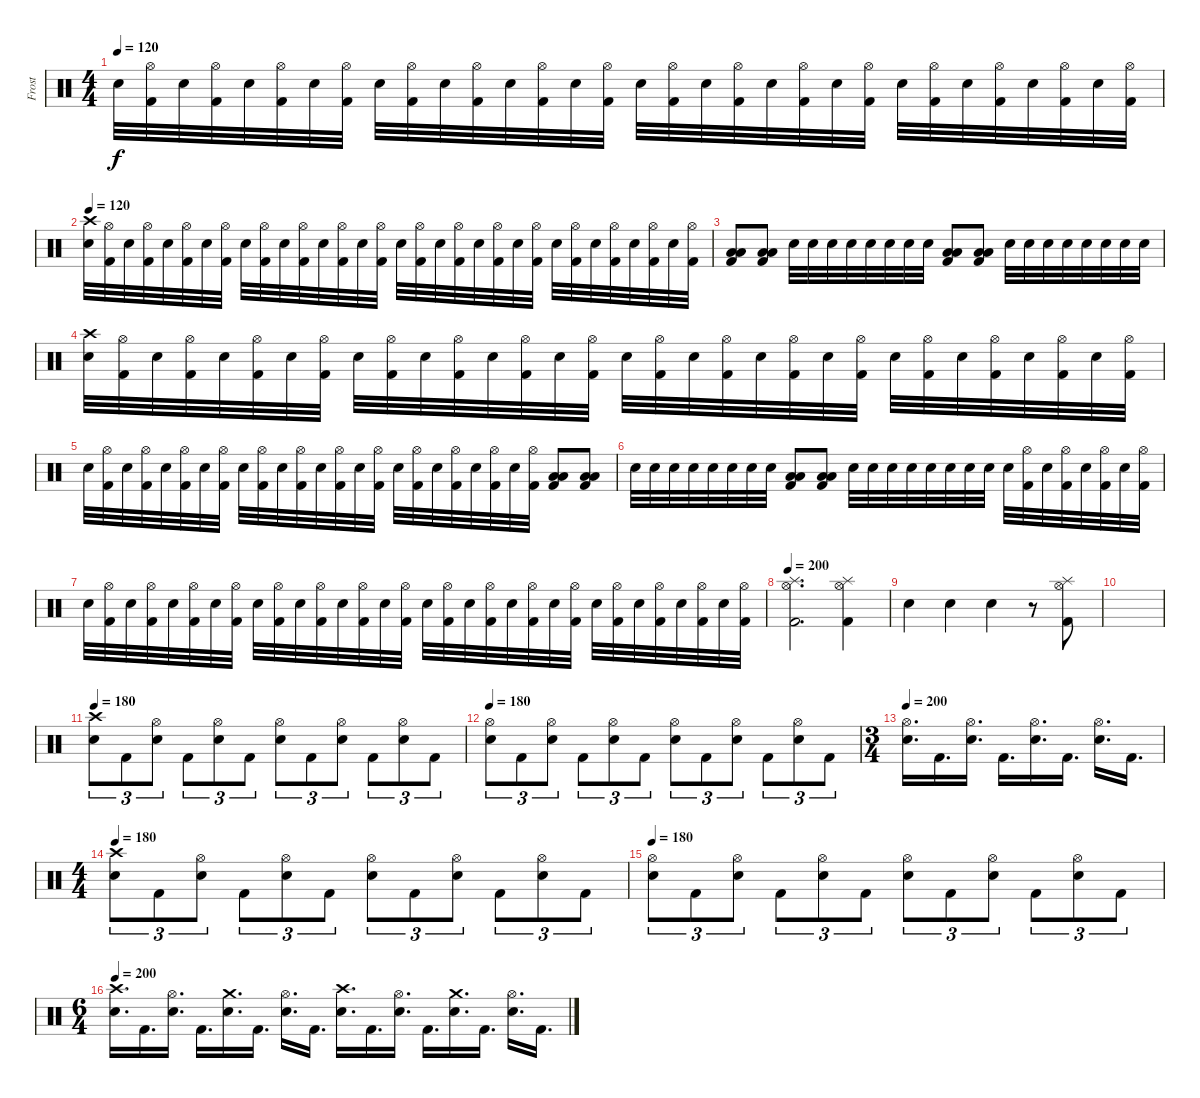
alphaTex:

\track ("Frost" "Frost") {instrument percussion}
\staff {score}
\articulation defaults
\ts (4 4)
\tempo 120
\clef neutral
\ks c "Snare (hit) 2".32{dy f}
("Hi-Hat (open)" "Kick (hit) 2").32 "Snare (hit) 2".32 ("Hi-Hat (open)" "Kick (hit) 2").32 "Snare (hit) 2".32 ("Hi-Hat (open)" "Kick (hit) 2").32 "Snare (hit) 2".32 ("Hi-Hat (open)" "Kick (hit) 2").32 "Snare (hit) 2".32 ("Hi-Hat (open)" "Kick (hit) 2").32 "Snare (hit) 2".32 ("Hi-Hat (open)" "Kick (hit) 2").32 "Snare (hit) 2".32 ("Hi-Hat (open)" "Kick (hit) 2").32 "Snare (hit) 2".32 ("Hi-Hat (open)" "Kick (hit) 2").32 "Snare (hit) 2".32 ("Hi-Hat (open)" "Kick (hit) 2").32 "Snare (hit) 2".32 ("Hi-Hat (open)" "Kick (hit) 2").32 "Snare (hit) 2".32 ("Hi-Hat (open)" "Kick (hit) 2").32 "Snare (hit) 2".32 ("Hi-Hat (open)" "Kick (hit) 2").32 "Snare (hit) 2".32 ("Hi-Hat (open)" "Kick (hit) 2").32 "Snare (hit) 2".32 ("Hi-Hat (open)" "Kick (hit) 2").32 "Snare (hit) 2".32 ("Hi-Hat (open)" "Kick (hit) 2").32 "Snare (hit) 2".32 ("Hi-Hat (open)" "Kick (hit) 2").32 |
\tempo 120
("Crash high (hit)" "Snare (hit) 2").32 ("Hi-Hat (open)" "Kick (hit) 2").32 "Snare (hit) 2".32 ("Hi-Hat (open)" "Kick (hit) 2").32 "Snare (hit) 2".32 ("Hi-Hat (open)" "Kick (hit) 2").32 "Snare (hit) 2".32 ("Hi-Hat (open)" "Kick (hit) 2").32 "Snare (hit) 2".32 ("Hi-Hat (open)" "Kick (hit) 2").32 "Snare (hit) 2".32 ("Hi-Hat (open)" "Kick (hit) 2").32 "Snare (hit) 2".32 ("Hi-Hat (open)" "Kick (hit) 2").32 "Snare (hit) 2".32 ("Hi-Hat (open)" "Kick (hit) 2").32 "Snare (hit) 2".32 ("Hi-Hat (open)" "Kick (hit) 2").32 "Snare (hit) 2".32 ("Hi-Hat (open)" "Kick (hit) 2").32 "Snare (hit) 2".32 ("Hi-Hat (open)" "Kick (hit) 2").32 "Snare (hit) 2".32 ("Hi-Hat (open)" "Kick (hit) 2").32 "Snare (hit) 2".32 ("Hi-Hat (open)" "Kick (hit) 2").32 "Snare (hit) 2".32 ("Hi-Hat (open)" "Kick (hit) 2").32 "Snare (hit) 2".32 ("Hi-Hat (open)" "Kick (hit) 2").32 "Snare (hit) 2".32 ("Hi-Hat (open)" "Kick (hit) 2").32 |
("Low Floor Tom (hit)" "Low Tom (hit)" "Kick (hit) 2").8 ("Low Floor Tom (hit)" "Low Tom (hit)" "Kick (hit) 2").8 "Snare (hit) 2".32 "Snare (hit) 2".32 "Snare (hit) 2".32 "Snare (hit) 2".32 "Snare (hit) 2".32 "Snare (hit) 2".32 "Snare (hit) 2".32 "Snare (hit) 2".32 ("Low Floor Tom (hit)" "Low Tom (hit)" "Kick (hit) 2").8 ("Low Floor Tom (hit)" "Low Tom (hit)" "Kick (hit) 2").8 "Snare (hit) 2".32 "Snare (hit) 2".32 "Snare (hit) 2".32 "Snare (hit) 2".32 "Snare (hit) 2".32 "Snare (hit) 2".32 "Snare (hit) 2".32 "Snare (hit) 2".32 |
("Crash high (hit)" "Snare (hit) 2").32 ("Hi-Hat (open)" "Kick (hit) 2").32 "Snare (hit) 2".32 ("Hi-Hat (open)" "Kick (hit) 2").32 "Snare (hit) 2".32 ("Hi-Hat (open)" "Kick (hit) 2").32 "Snare (hit) 2".32 ("Hi-Hat (open)" "Kick (hit) 2").32 "Snare (hit) 2".32 ("Hi-Hat (open)" "Kick (hit) 2").32 "Snare (hit) 2".32 ("Hi-Hat (open)" "Kick (hit) 2").32 "Snare (hit) 2".32 ("Hi-Hat (open)" "Kick (hit) 2").32 "Snare (hit) 2".32 ("Hi-Hat (open)" "Kick (hit) 2").32 "Snare (hit) 2".32 ("Hi-Hat (open)" "Kick (hit) 2").32 "Snare (hit) 2".32 ("Hi-Hat (open)" "Kick (hit) 2").32 "Snare (hit) 2".32 ("Hi-Hat (open)" "Kick (hit) 2").32 "Snare (hit) 2".32 ("Hi-Hat (open)" "Kick (hit) 2").32 "Snare (hit) 2".32 ("Hi-Hat (open)" "Kick (hit) 2").32 "Snare (hit) 2".32 ("Hi-Hat (open)" "Kick (hit) 2").32 "Snare (hit) 2".32 ("Hi-Hat (open)" "Kick (hit) 2").32 "Snare (hit) 2".32 ("Hi-Hat (open)" "Kick (hit) 2").32 |
"Snare (hit) 2".32 ("Hi-Hat (open)" "Kick (hit) 2").32 "Snare (hit) 2".32 ("Hi-Hat (open)" "Kick (hit) 2").32 "Snare (hit) 2".32 ("Hi-Hat (open)" "Kick (hit) 2").32 "Snare (hit) 2".32 ("Hi-Hat (open)" "Kick (hit) 2").32 "Snare (hit) 2".32 ("Hi-Hat (open)" "Kick (hit) 2").32 "Snare (hit) 2".32 ("Hi-Hat (open)" "Kick (hit) 2").32 "Snare (hit) 2".32 ("Hi-Hat (open)" "Kick (hit) 2").32 "Snare (hit) 2".32 ("Hi-Hat (open)" "Kick (hit) 2").32 "Snare (hit) 2".32 ("Hi-Hat (open)" "Kick (hit) 2").32 "Snare (hit) 2".32 ("Hi-Hat (open)" "Kick (hit) 2").32 "Snare (hit) 2".32 ("Hi-Hat (open)" "Kick (hit) 2").32 "Snare (hit) 2".32 ("Hi-Hat (open)" "Kick (hit) 2").32 ("Low Floor Tom (hit)" "Low Tom (hit)" "Kick (hit) 2").8 ("Low Floor Tom (hit)" "Low Tom (hit)" "Kick (hit) 2").8 |
"Snare (hit) 2".32 "Snare (hit) 2".32 "Snare (hit) 2".32 "Snare (hit) 2".32 "Snare (hit) 2".32 "Snare (hit) 2".32 "Snare (hit) 2".32 "Snare (hit) 2".32 ("Low Floor Tom (hit)" "Low Tom (hit)" "Kick (hit) 2").8 ("Low Floor Tom (hit)" "Low Tom (hit)" "Kick (hit) 2").8 "Snare (hit) 2".32 "Snare (hit) 2".32 "Snare (hit) 2".32 "Snare (hit) 2".32 "Snare (hit) 2".32 "Snare (hit) 2".32 "Snare (hit) 2".32 "Snare (hit) 2".32 "Snare (hit) 2".32 ("Hi-Hat (open)" "Kick (hit) 2").32 "Snare (hit) 2".32 ("Hi-Hat (open)" "Kick (hit) 2").32 "Snare (hit) 2".32 ("Hi-Hat (open)" "Kick (hit) 2").32 "Snare (hit) 2".32 ("Hi-Hat (open)" "Kick (hit) 2").32 |
"Snare (hit) 2".32 ("Hi-Hat (open)" "Kick (hit) 2").32 "Snare (hit) 2".32 ("Hi-Hat (open)" "Kick (hit) 2").32 "Snare (hit) 2".32 ("Hi-Hat (open)" "Kick (hit) 2").32 "Snare (hit) 2".32 ("Hi-Hat (open)" "Kick (hit) 2").32 "Snare (hit) 2".32 ("Hi-Hat (open)" "Kick (hit) 2").32 "Snare (hit) 2".32 ("Hi-Hat (open)" "Kick (hit) 2").32 "Snare (hit) 2".32 ("Hi-Hat (open)" "Kick (hit) 2").32 "Snare (hit) 2".32 ("Hi-Hat (open)" "Kick (hit) 2").32 "Snare (hit) 2".32 ("Hi-Hat (open)" "Kick (hit) 2").32 "Snare (hit) 2".32 ("Hi-Hat (open)" "Kick (hit) 2").32 "Snare (hit) 2".32 ("Hi-Hat (open)" "Kick (hit) 2").32 "Snare (hit) 2".32 ("Hi-Hat (open)" "Kick (hit) 2").32 "Snare (hit) 2".32 ("Hi-Hat (open)" "Kick (hit) 2").32 "Snare (hit) 2".32 ("Hi-Hat (open)" "Kick (hit) 2").32 "Snare (hit) 2".32 ("Hi-Hat (open)" "Kick (hit) 2").32 "Snare (hit) 2".32 ("Hi-Hat (open)" "Kick (hit) 2").32 |
\tempo 200
("Splash (hit)" "Hi-Hat (open)" "Kick (hit) 2").2{d} ("Splash (hit)" "Hi-Hat (open)" "Kick (hit) 2").4 |
"Snare (hit)".4 "Snare (hit)".4 "Snare (hit)".4 r.8 ("Splash (hit)" "Hi-Hat (open)" "Kick (hit) 2").8 |
|
\tempo 180
("Crash high (hit)" "Snare (hit) 2").8{tu (3 2)} "Kick (hit) 2".8{tu (3 2)} ("Hi-Hat (open)" "Snare (hit) 2").8{tu (3 2)} "Kick (hit) 2".8{tu (3 2)} ("Hi-Hat (open)" "Snare (hit) 2").8{tu (3 2)} "Kick (hit) 2".8{tu (3 2)} ("Hi-Hat (open)" "Snare (hit) 2").8{tu (3 2)} "Kick (hit) 2".8{tu (3 2)} ("Hi-Hat (open)" "Snare (hit) 2").8{tu (3 2)} "Kick (hit) 2".8{tu (3 2)} ("Hi-Hat (open)" "Snare (hit) 2").8{tu (3 2)} "Kick (hit) 2".8{tu (3 2)} |
\tempo 180
("Hi-Hat (open)" "Snare (hit) 2").8{tu (3 2)} "Kick (hit) 2".8{tu (3 2)} ("Hi-Hat (open)" "Snare (hit) 2").8{tu (3 2)} "Kick (hit) 2".8{tu (3 2)} ("Hi-Hat (open)" "Snare (hit) 2").8{tu (3 2)} "Kick (hit) 2".8{tu (3 2)} ("Hi-Hat (open)" "Snare (hit) 2").8{tu (3 2)} "Kick (hit) 2".8{tu (3 2)} ("Hi-Hat (open)" "Snare (hit) 2").8{tu (3 2)} "Kick (hit) 2".8{tu (3 2)} ("Hi-Hat (open)" "Snare (hit) 2").8{tu (3 2)} "Kick (hit) 2".8{tu (3 2)} |
\ts (3 4)
\tempo 200
("Hi-Hat (open)" "Snare (hit) 2").16{d} "Kick (hit) 2".16{d} ("Hi-Hat (open)" "Snare (hit) 2").16{d} "Kick (hit) 2".16{d} ("Hi-Hat (open)" "Snare (hit) 2").16{d} "Kick (hit) 2".16{d} ("Hi-Hat (open)" "Snare (hit) 2").16{d} "Kick (hit) 2".16{d} |
\ts (4 4)
\tempo 180
("Crash high (hit)" "Snare (hit) 2").8{tu (3 2)} "Kick (hit) 2".8{tu (3 2)} ("Hi-Hat (open)" "Snare (hit) 2").8{tu (3 2)} "Kick (hit) 2".8{tu (3 2)} ("Hi-Hat (open)" "Snare (hit) 2").8{tu (3 2)} "Kick (hit) 2".8{tu (3 2)} ("Hi-Hat (open)" "Snare (hit) 2").8{tu (3 2)} "Kick (hit) 2".8{tu (3 2)} ("Hi-Hat (open)" "Snare (hit) 2").8{tu (3 2)} "Kick (hit) 2".8{tu (3 2)} ("Hi-Hat (open)" "Snare (hit) 2").8{tu (3 2)} "Kick (hit) 2".8{tu (3 2)} |
\tempo 180
("Hi-Hat (open)" "Snare (hit) 2").8{tu (3 2)} "Kick (hit) 2".8{tu (3 2)} ("Hi-Hat (open)" "Snare (hit) 2").8{tu (3 2)} "Kick (hit) 2".8{tu (3 2)} ("Hi-Hat (open)" "Snare (hit) 2").8{tu (3 2)} "Kick (hit) 2".8{tu (3 2)} ("Hi-Hat (open)" "Snare (hit) 2").8{tu (3 2)} "Kick (hit) 2".8{tu (3 2)} ("Hi-Hat (open)" "Snare (hit) 2").8{tu (3 2)} "Kick (hit) 2".8{tu (3 2)} ("Hi-Hat (open)" "Snare (hit) 2").8{tu (3 2)} "Kick (hit) 2".8{tu (3 2)} |
\ts (6 4)
\tempo 200
("Crash high (hit)" "Snare (hit) 2").16{d} "Kick (hit) 2".16{d} ("Hi-Hat (open)" "Snare (hit) 2").16{d} "Kick (hit) 2".16{d} ("Crash medium (hit)" "Snare (hit) 2").16{d} "Kick (hit) 2".16{d} ("Hi-Hat (open)" "Snare (hit) 2").16{d} "Kick (hit) 2".16{d} ("Crash high (hit)" "Snare (hit) 2").16{d} "Kick (hit) 2".16{d} ("Hi-Hat (open)" "Snare (hit) 2").16{d} "Kick (hit) 2".16{d} ("Crash medium (hit)" "Snare (hit) 2").16{d} "Kick (hit) 2".16{d} ("Hi-Hat (open)" "Snare (hit) 2").16{d} "Kick (hit) 2".16{d}
